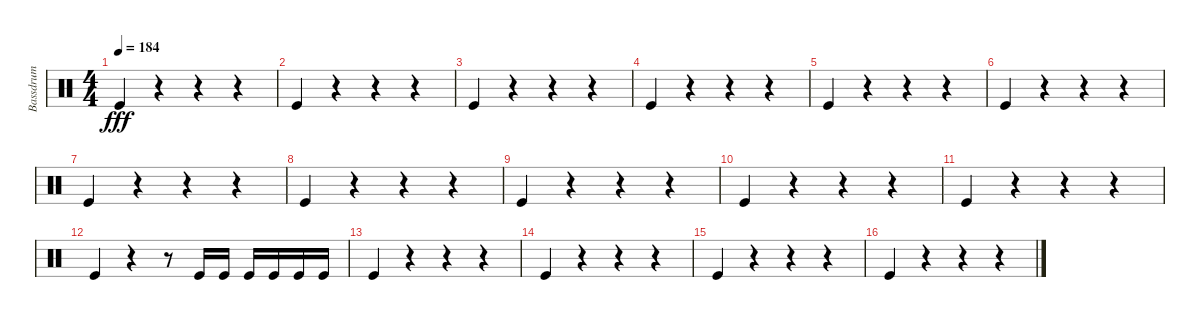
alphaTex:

\track ("Bassdrum" "Bassdrum") {instrument percussion}
\staff {score}
\articulation defaults
\ts (4 4)
\tempo 184
\clef neutral
\ks c "Kick (hit)".4{dy fff}
r.4 r.4 r.4 |
"Kick (hit)".4 r.4 r.4 r.4 |
"Kick (hit)".4 r.4 r.4 r.4 |
"Kick (hit)".4 r.4 r.4 r.4 |
"Kick (hit)".4 r.4 r.4 r.4 |
"Kick (hit)".4 r.4 r.4 r.4 |
"Kick (hit)".4 r.4 r.4 r.4 |
"Kick (hit)".4 r.4 r.4 r.4 |
"Kick (hit)".4 r.4 r.4 r.4 |
"Kick (hit)".4 r.4 r.4 r.4 |
"Kick (hit)".4 r.4 r.4 r.4 |
"Kick (hit)".4 r.4 r.8 "Kick (hit)".16 "Kick (hit)".16 "Kick (hit)".16 "Kick (hit)".16 "Kick (hit)".16 "Kick (hit)".16 |
"Kick (hit)".4 r.4 r.4 r.4 |
"Kick (hit)".4 r.4 r.4 r.4 |
"Kick (hit)".4 r.4 r.4 r.4 |
"Kick (hit)".4 r.4 r.4 r.4
